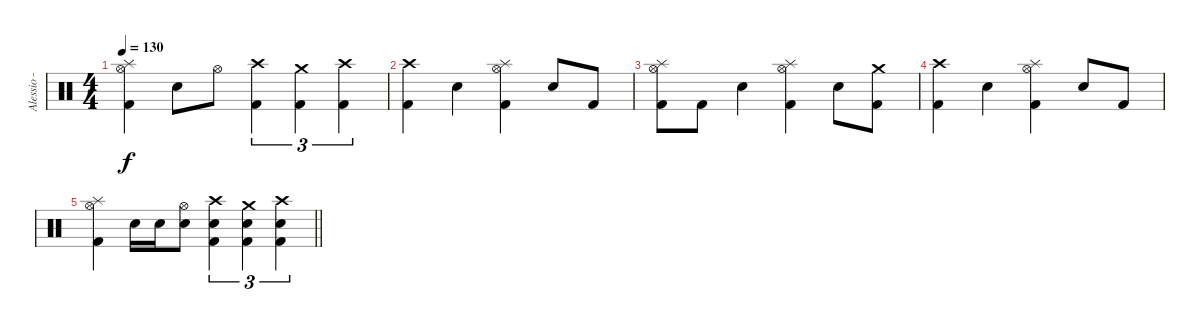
\track ("Alessio - Drums" "Alessio - ") {instrument percussion}
\staff {score}
\articulation defaults
\ts (4 4)
\tempo 130
\clef neutral
\ks c
("Splash (hit)" "Hi-Hat (open)" "Kick (hit) 2").4{dy f} "Electric Snare (hit)".8 "Hi-Hat (open)".8 ("Crash high (hit)" "Kick (hit) 2").4{tu (3 2)} ("Crash medium (hit)" "Kick (hit) 2").4{tu (3 2)} ("Crash high (hit)" "Kick (hit) 2").4{tu (3 2)} |
("Crash high (hit)" "Kick (hit) 2").4 "Electric Snare (hit)".4 ("Splash (hit)" "Hi-Hat (open)" "Kick (hit) 2").4 "Electric Snare (hit)".8 "Kick (hit) 2".8 |
("Splash (hit)" "Hi-Hat (open)" "Kick (hit) 2").8 "Kick (hit) 2".8 "Electric Snare (hit)".4 ("Splash (hit)" "Hi-Hat (open)" "Kick (hit) 2").4 "Electric Snare (hit)".8 ("Crash medium (hit)" "Kick (hit) 2").8 |
("Crash high (hit)" "Kick (hit) 2").4 "Electric Snare (hit)".4 ("Splash (hit)" "Hi-Hat (open)" "Kick (hit) 2").4 "Electric Snare (hit)".8 "Kick (hit) 2".8 |
\barLineRight lightlight
("Splash (hit)" "Hi-Hat (open)" "Kick (hit) 2").4 "Electric Snare (hit)".16 "Electric Snare (hit)".16 ("Hi-Hat (open)" "Electric Snare (hit)").8 ("Crash high (hit)" "Electric Snare (hit)" "Kick (hit) 2").4{tu (3 2)} ("Crash medium (hit)" "Electric Snare (hit)" "Kick (hit) 2").4{tu (3 2)} ("Crash high (hit)" "Electric Snare (hit)" "Kick (hit) 2").4{tu (3 2)}
